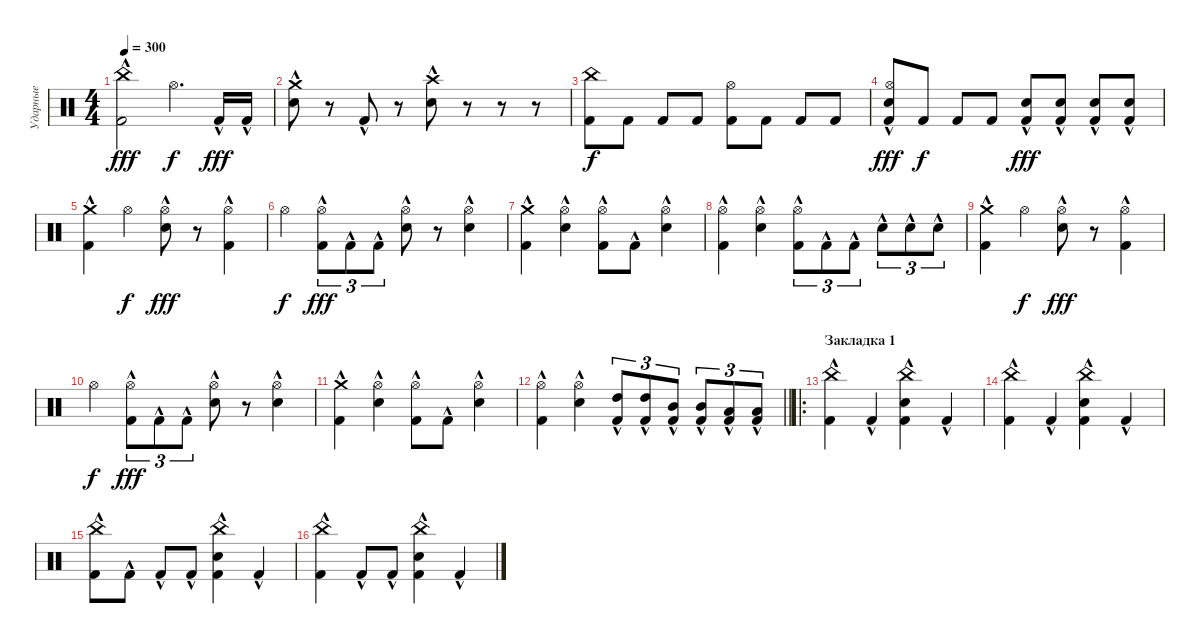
\track ("Ударные" "Ударные") {instrument percussion}
\staff
\articulation defaults
\ts (4 4)
\tempo 300
\clef neutral
\ks c
("China (hit)" "Kick (hit) 2"{hac}).2{dy fff} "Hi-Hat (open)".4{d dy f} "Kick (hit) 2"{hac}.16{dy fff} "Kick (hit) 2"{hac}.16 |
("Crash medium (hit)" "Snare (hit) 2"{hac}).8 r.8 "Kick (hit) 2"{hac}.8 r.8 ("Crash high (hit)" "Snare (hit) 2"{hac}).8 r.8 r.8 r.8 |
("China (hit)" "Kick (hit) 2").8{dy f} "Kick (hit) 2".8 "Kick (hit) 2".8 "Kick (hit) 2".8 ("Hi-Hat (open)" "Kick (hit) 2").8 "Kick (hit) 2".8 "Kick (hit) 2".8 "Kick (hit) 2".8 |
("Hi-Hat (open)" "Snare (hit) 2"{hac} "Kick (hit) 2").8{dy fff} "Kick (hit) 2".8{dy f} "Kick (hit) 2".8 "Kick (hit) 2".8 ("Snare (hit) 2"{hac} "Kick (hit) 2"{hac}).8{dy fff} ("Snare (hit) 2"{hac} "Kick (hit) 2"{hac}).8 ("Snare (hit) 2"{hac} "Kick (hit) 2"{hac}).8 ("Snare (hit) 2"{hac} "Kick (hit) 2"{hac}).8 |
("Crash medium (hit)" "Kick (hit) 2"{hac}).4 "Hi-Hat (open)".4{dy f} ("Hi-Hat (open)" "Snare (hit) 2"{hac}).8{dy fff} r.8 ("Hi-Hat (open)" "Kick (hit) 2"{hac}).4 |
"Hi-Hat (open)".4{dy f} ("Hi-Hat (open)" "Kick (hit) 2"{hac}).8{tu (3 2) dy fff} "Kick (hit) 2"{hac}.8{tu (3 2)} "Kick (hit) 2"{hac}.8{tu (3 2)} ("Hi-Hat (open)" "Snare (hit) 2"{hac}).8 r.8 ("Hi-Hat (open)" "Snare (hit) 2"{hac}).4 |
("Crash medium (hit)" "Kick (hit) 2"{hac}).4 ("Hi-Hat (open)" "Snare (hit) 2"{hac}).4 ("Hi-Hat (open)" "Kick (hit) 2"{hac}).8 "Kick (hit) 2"{hac}.8 ("Hi-Hat (open)" "Snare (hit) 2"{hac}).4 |
("Hi-Hat (open)" "Kick (hit) 2"{hac}).4 ("Hi-Hat (open)" "Snare (hit) 2"{hac}).4 ("Hi-Hat (open)" "Kick (hit) 2"{hac}).8{tu (3 2)} "Kick (hit) 2"{hac}.8{tu (3 2)} "Kick (hit) 2"{hac}.8{tu (3 2)} "Snare (hit) 2"{hac}.8{tu (3 2)} "Snare (hit) 2"{hac}.8{tu (3 2)} "Snare (hit) 2"{hac}.8{tu (3 2)} |
("Crash medium (hit)" "Kick (hit) 2"{hac}).4 "Hi-Hat (open)".4{dy f} ("Hi-Hat (open)" "Snare (hit) 2"{hac}).8{dy fff} r.8 ("Hi-Hat (open)" "Kick (hit) 2"{hac}).4 |
"Hi-Hat (open)".4{dy f} ("Hi-Hat (open)" "Kick (hit) 2"{hac}).8{tu (3 2) dy fff} "Kick (hit) 2"{hac}.8{tu (3 2)} "Kick (hit) 2"{hac}.8{tu (3 2)} ("Hi-Hat (open)" "Snare (hit) 2"{hac}).8 r.8 ("Hi-Hat (open)" "Snare (hit) 2"{hac}).4 |
("Crash medium (hit)" "Kick (hit) 2"{hac}).4 ("Hi-Hat (open)" "Snare (hit) 2"{hac}).4 ("Hi-Hat (open)" "Kick (hit) 2"{hac}).8 "Kick (hit) 2"{hac}.8 ("Hi-Hat (open)" "Snare (hit) 2"{hac}).4 |
\barLineRight lightlight
("Hi-Hat (open)" "Kick (hit) 2"{hac}).4 ("Hi-Hat (open)" "Snare (hit) 2"{hac}).4 ("High Tom (hit)"{hac} "Kick (hit) 2"{hac}).8{tu (3 2)} ("High Tom (hit)"{hac} "Kick (hit) 2"{hac}).8{tu (3 2)} ("Mid Tom (hit)"{hac} "Kick (hit) 2"{hac}).8{tu (3 2)} ("Mid Tom (hit)"{hac} "Kick (hit) 2"{hac}).8{tu (3 2)} ("Low Tom (hit)"{hac} "Kick (hit) 2"{hac}).8{tu (3 2)} ("Low Tom (hit)"{hac} "Kick (hit) 2"{hac}).8{tu (3 2)} |
\ro
\section ("" "Закладка 1")
("China (hit)" "Kick (hit) 2"{hac}).4 "Kick (hit) 2"{hac}.4 ("China (hit)" "Snare (hit) 2"{hac} "Kick (hit) 2"{hac}).4 "Kick (hit) 2"{hac}.4 |
("China (hit)" "Kick (hit) 2"{hac}).4 "Kick (hit) 2"{hac}.4 ("China (hit)" "Snare (hit) 2"{hac} "Kick (hit) 2"{hac}).4 "Kick (hit) 2"{hac}.4 |
("China (hit)" "Kick (hit) 2"{hac}).8 "Kick (hit) 2"{hac}.8 "Kick (hit) 2"{hac}.8 "Kick (hit) 2"{hac}.8 ("China (hit)" "Snare (hit) 2"{hac} "Kick (hit) 2"{hac}).4 "Kick (hit) 2"{hac}.4 |
("China (hit)" "Kick (hit) 2"{hac}).4 "Kick (hit) 2"{hac}.8 "Kick (hit) 2"{hac}.8 ("China (hit)" "Snare (hit) 2"{hac} "Kick (hit) 2"{hac}).4 "Kick (hit) 2"{hac}.4
